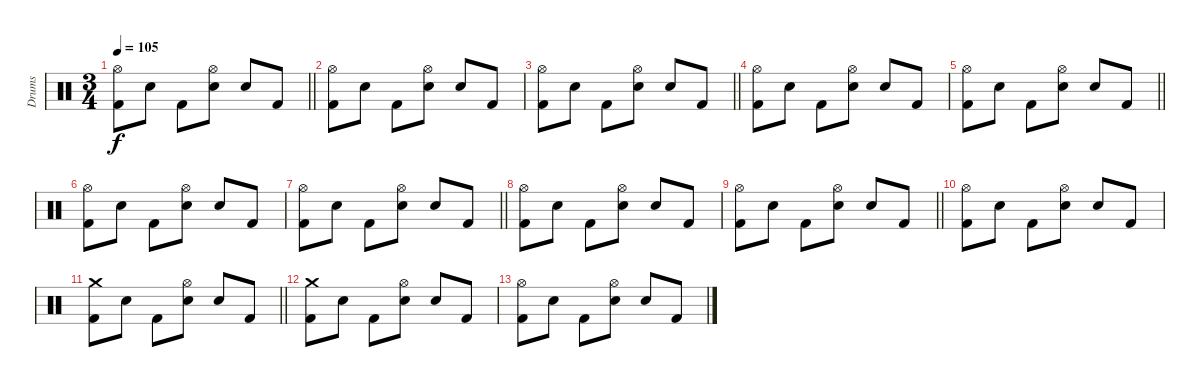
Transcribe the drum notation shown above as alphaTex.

\track ("Drums" "Drums") {instrument percussion}
\staff {score}
\articulation defaults
\ts (3 4)
\tempo 105
\clef neutral
\barLineRight lightlight
\ks c
("Hi-Hat (open)" "Kick (hit) 2").8{dy f} "Snare (hit)".8 "Kick (hit) 2".8 ("Hi-Hat (open)" "Electric Snare (hit)").8 "Snare (hit)".8 "Kick (hit) 2".8 |
("Hi-Hat (open)" "Kick (hit) 2").8 "Snare (hit)".8 "Kick (hit) 2".8 ("Hi-Hat (open)" "Electric Snare (hit)").8 "Snare (hit)".8 "Kick (hit) 2".8 |
\barLineRight lightlight
("Hi-Hat (open)" "Kick (hit) 2").8 "Snare (hit)".8 "Kick (hit) 2".8 ("Hi-Hat (open)" "Electric Snare (hit)").8 "Snare (hit)".8 "Kick (hit) 2".8 |
("Hi-Hat (open)" "Kick (hit) 2").8 "Snare (hit)".8 "Kick (hit) 2".8 ("Hi-Hat (open)" "Electric Snare (hit)").8 "Snare (hit)".8 "Kick (hit) 2".8 |
\barLineRight lightlight
("Hi-Hat (open)" "Kick (hit) 2").8 "Snare (hit)".8 "Kick (hit) 2".8 ("Hi-Hat (open)" "Electric Snare (hit)").8 "Snare (hit)".8 "Kick (hit) 2".8 |
("Hi-Hat (open)" "Kick (hit) 2").8 "Snare (hit)".8 "Kick (hit) 2".8 ("Hi-Hat (open)" "Electric Snare (hit)").8 "Snare (hit)".8 "Kick (hit) 2".8 |
\barLineRight lightlight
("Hi-Hat (open)" "Kick (hit) 2").8 "Snare (hit)".8 "Kick (hit) 2".8 ("Hi-Hat (open)" "Electric Snare (hit)").8 "Snare (hit)".8 "Kick (hit) 2".8 |
("Hi-Hat (open)" "Kick (hit) 2").8 "Snare (hit)".8 "Kick (hit) 2".8 ("Hi-Hat (open)" "Electric Snare (hit)").8 "Snare (hit)".8 "Kick (hit) 2".8 |
\barLineRight lightlight
("Hi-Hat (open)" "Kick (hit) 2").8 "Snare (hit)".8 "Kick (hit) 2".8 ("Hi-Hat (open)" "Electric Snare (hit)").8 "Snare (hit)".8 "Kick (hit) 2".8 |
("Hi-Hat (open)" "Kick (hit) 2").8 "Snare (hit)".8 "Kick (hit) 2".8 ("Hi-Hat (open)" "Electric Snare (hit)").8 "Snare (hit)".8 "Kick (hit) 2".8 |
\barLineRight lightlight
("Crash medium (hit)" "Kick (hit) 2").8 "Snare (hit)".8 "Kick (hit) 2".8 ("Hi-Hat (open)" "Electric Snare (hit)").8 "Snare (hit)".8 "Kick (hit) 2".8 |
("Crash medium (hit)" "Kick (hit) 2").8 "Snare (hit)".8 "Kick (hit) 2".8 ("Hi-Hat (open)" "Electric Snare (hit)").8 "Snare (hit)".8 "Kick (hit) 2".8 |
("Hi-Hat (open)" "Kick (hit) 2").8 "Snare (hit)".8 "Kick (hit) 2".8 ("Hi-Hat (open)" "Electric Snare (hit)").8 "Snare (hit)".8 "Kick (hit) 2".8
